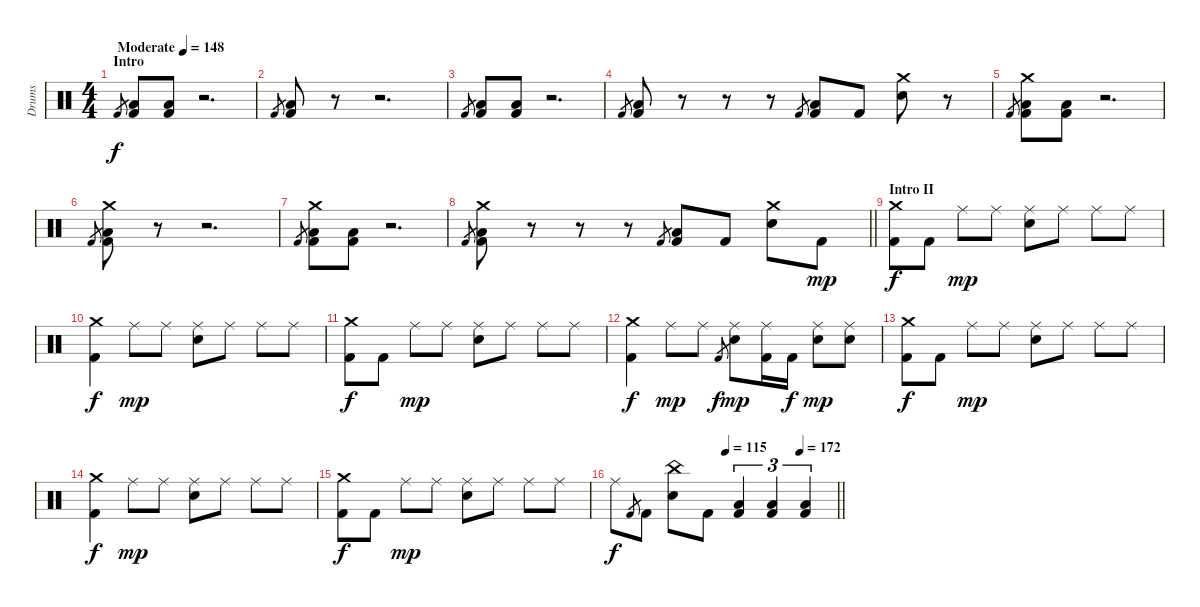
\track ("Drums" "Drums") {instrument percussion}
\staff {score}
\articulation defaults
\ts (4 4)
\section ("" "Intro")
\tempo (148 "Moderate")
\clef neutral
\ks c "Kick (hit) 2".8{gr dy f}
("Low Floor Tom (hit)" "Kick (hit) 2").8 ("Low Floor Tom (hit)" "Kick (hit) 2").8 r.2{d} |
"Kick (hit) 2".8{gr} ("Low Floor Tom (hit)" "Kick (hit) 2").8 r.8 r.2{d} |
"Kick (hit) 2".8{gr} ("Low Floor Tom (hit)" "Kick (hit) 2").8 ("Low Floor Tom (hit)" "Kick (hit) 2").8 r.2{d} |
"Kick (hit) 2".8{gr} ("Low Floor Tom (hit)" "Kick (hit) 2").8 r.8 r.8 r.8 "Kick (hit) 2".8{gr} ("Low Floor Tom (hit)" "Kick (hit) 2").8 "Kick (hit) 2".8 ("Crash medium (hit)" "Electric Snare (hit)").8 r.8 |
"Kick (hit) 2".8{gr} ("Crash medium (hit)" "Low Floor Tom (hit)" "Kick (hit) 2").8 ("Low Floor Tom (hit)" "Kick (hit) 2").8 r.2{d} |
"Kick (hit) 2".8{gr} ("Crash medium (hit)" "Low Floor Tom (hit)" "Kick (hit) 2").8 r.8 r.2{d} |
"Kick (hit) 2".8{gr} ("Crash medium (hit)" "Low Floor Tom (hit)" "Kick (hit) 2").8 ("Low Floor Tom (hit)" "Kick (hit) 2").8 r.2{d} |
\barLineRight lightlight "Kick (hit) 2".8{gr}
("Crash medium (hit)" "Low Floor Tom (hit)" "Kick (hit) 2").8 r.8 r.8 r.8 "Kick (hit) 2".8{gr} ("Low Floor Tom (hit)" "Kick (hit) 2").8 "Kick (hit) 2".8 ("Crash medium (hit)" "Electric Snare (hit)").8 "Kick (hit) 2".8{dy mp} |
\section ("" "Intro II")
("Crash medium (hit)" "Kick (hit) 2").8{dy f} "Kick (hit) 2".8 "Ride (middle)".8{dy mp} "Ride (middle)".8 ("Ride (middle)" "Electric Snare (hit)").8 "Ride (middle)".8 "Ride (middle)".8 "Ride (middle)".8 |
("Crash medium (hit)" "Kick (hit) 2").4{dy f} "Ride (middle)".8{dy mp} "Ride (middle)".8 ("Ride (middle)" "Electric Snare (hit)").8 "Ride (middle)".8 "Ride (middle)".8 "Ride (middle)".8 |
("Crash medium (hit)" "Kick (hit) 2").8{dy f} "Kick (hit) 2".8 "Ride (middle)".8{dy mp} "Ride (middle)".8 ("Ride (middle)" "Electric Snare (hit)").8 "Ride (middle)".8 "Ride (middle)".8 "Ride (middle)".8 |
("Crash medium (hit)" "Kick (hit) 2").4{dy f} "Ride (middle)".8{dy mp} "Ride (middle)".8 "Kick (hit) 2".8{gr dy f} ("Ride (middle)" "Electric Snare (hit)").8{dy mp} ("Ride (middle)" "Kick (hit) 2").16 "Kick (hit) 2".16{dy f} ("Ride (middle)" "Electric Snare (hit)").8{dy mp} ("Ride (middle)" "Electric Snare (hit)").8 |
("Crash medium (hit)" "Kick (hit) 2").8{dy f} "Kick (hit) 2".8 "Ride (middle)".8{dy mp} "Ride (middle)".8 ("Ride (middle)" "Electric Snare (hit)").8 "Ride (middle)".8 "Ride (middle)".8 "Ride (middle)".8 |
("Crash medium (hit)" "Kick (hit) 2").4{dy f} "Ride (middle)".8{dy mp} "Ride (middle)".8 ("Ride (middle)" "Electric Snare (hit)").8 "Ride (middle)".8 "Ride (middle)".8 "Ride (middle)".8 |
("Crash medium (hit)" "Kick (hit) 2").8{dy f} "Kick (hit) 2".8 "Ride (middle)".8{dy mp} "Ride (middle)".8 ("Ride (middle)" "Electric Snare (hit)").8 "Ride (middle)".8 "Ride (middle)".8 "Ride (middle)".8 |
\tempo (115 0.5)
\tempo (172 0.8333333333333334)
\barLineRight lightlight "Ride (middle)".8{dy f} "Kick (hit) 2".8{gr} "Kick (hit) 2".8
("China (hit)" "Electric Snare (hit)").8 "Kick (hit) 2".8 ("Low Floor Tom (hit)" "Kick (hit) 2").4{tu (3 2)} ("Low Floor Tom (hit)" "Kick (hit) 2").4{tu (3 2)} ("Low Floor Tom (hit)" "Kick (hit) 2").4{tu (3 2)}
